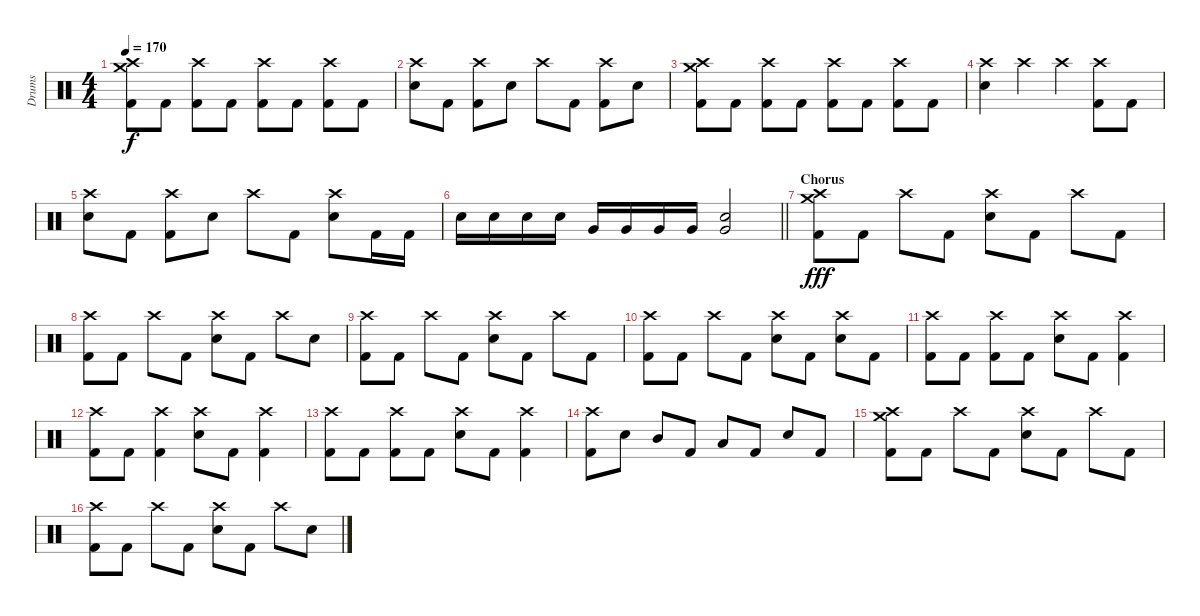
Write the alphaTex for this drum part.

\track ("Drums" "Drums") {instrument percussion}
\staff {score}
\articulation defaults
\ts (4 4)
\tempo 170
\clef neutral
\ks c
("Crash high (hit)" "Crash medium (hit)" "Kick (hit) 2").8{dy f} "Kick (hit) 2".8 ("Crash high (hit)" "Kick (hit) 2").8 "Kick (hit) 2".8 ("Crash high (hit)" "Kick (hit) 2").8 "Kick (hit) 2".8 ("Crash high (hit)" "Kick (hit) 2").8 "Kick (hit) 2".8 |
("Crash high (hit)" "Electric Snare (hit)").8 "Kick (hit) 2".8 ("Crash high (hit)" "Kick (hit) 2").8 "Electric Snare (hit)".8 "Crash high (hit)".8 "Kick (hit) 2".8 ("Crash high (hit)" "Kick (hit) 2").8 "Electric Snare (hit)".8 |
("Crash high (hit)" "Crash medium (hit)" "Kick (hit) 2").8 "Kick (hit) 2".8 ("Crash high (hit)" "Kick (hit) 2").8 "Kick (hit) 2".8 ("Crash high (hit)" "Kick (hit) 2").8 "Kick (hit) 2".8 ("Crash high (hit)" "Kick (hit) 2").8 "Kick (hit) 2".8 |
("Crash high (hit)" "Electric Snare (hit)").4 "Crash high (hit)".4 "Crash high (hit)".4 ("Crash high (hit)" "Kick (hit) 2").8 "Kick (hit) 2".8 |
("Crash high (hit)" "Electric Snare (hit)").8 "Kick (hit) 2".8 ("Crash high (hit)" "Kick (hit) 2").8 "Electric Snare (hit)".8 "Crash high (hit)".8 "Kick (hit) 2".8 ("Crash high (hit)" "Electric Snare (hit)").8 "Kick (hit) 2".16 "Kick (hit) 2".16 |
\barLineRight lightlight "Electric Snare (hit)".16 "Electric Snare (hit)".16 "Electric Snare (hit)".16 "Electric Snare (hit)".16 "Very Low Tom (hit)".16 "Very Low Tom (hit)".16 "Very Low Tom (hit)".16 "Very Low Tom (hit)".16
("Very Low Tom (hit)" "Electric Snare (hit)").2 |
\section ("" "Chorus")
("Crash high (hit)" "Crash medium (hit)" "Kick (hit) 2").8{dy fff} "Kick (hit) 2".8 "Crash high (hit)".8 "Kick (hit) 2".8 ("Crash high (hit)" "Electric Snare (hit)").8 "Kick (hit) 2".8 "Crash high (hit)".8 "Kick (hit) 2".8 |
("Crash high (hit)" "Kick (hit) 2").8 "Kick (hit) 2".8 "Crash high (hit)".8 "Kick (hit) 2".8 ("Crash high (hit)" "Electric Snare (hit)").8 "Kick (hit) 2".8 "Crash high (hit)".8 "Electric Snare (hit)".8 |
("Crash high (hit)" "Kick (hit) 2").8 "Kick (hit) 2".8 "Crash high (hit)".8 "Kick (hit) 2".8 ("Crash high (hit)" "Electric Snare (hit)").8 "Kick (hit) 2".8 "Crash high (hit)".8 "Kick (hit) 2".8 |
("Crash high (hit)" "Kick (hit) 2").8 "Kick (hit) 2".8 "Crash high (hit)".8 "Kick (hit) 2".8 ("Crash high (hit)" "Electric Snare (hit)").8 "Kick (hit) 2".8 ("Crash high (hit)" "Electric Snare (hit)").8 "Kick (hit) 2".8 |
("Crash high (hit)" "Kick (hit) 2").8 "Kick (hit) 2".8 ("Crash high (hit)" "Kick (hit) 2").8 "Kick (hit) 2".8 ("Crash high (hit)" "Electric Snare (hit)").8 "Kick (hit) 2".8 ("Crash high (hit)" "Kick (hit) 2").4 |
("Crash high (hit)" "Kick (hit) 2").8 "Kick (hit) 2".8 ("Crash high (hit)" "Kick (hit) 2").4 ("Crash high (hit)" "Electric Snare (hit)").8 "Kick (hit) 2".8 ("Crash high (hit)" "Kick (hit) 2").4 |
("Crash high (hit)" "Kick (hit) 2").8 "Kick (hit) 2".8 ("Crash high (hit)" "Kick (hit) 2").8 "Kick (hit) 2".8 ("Crash high (hit)" "Electric Snare (hit)").8 "Kick (hit) 2".8 ("Crash high (hit)" "Kick (hit) 2").4 |
("Crash high (hit)" "Kick (hit) 2").8 "Electric Snare (hit)".8 "Mid Tom (hit)".8 "Kick (hit) 2".8 "Low Tom (hit)".8 "Kick (hit) 2".8 "Electric Snare (hit)".8 "Kick (hit) 2".8 |
("Crash high (hit)" "Crash medium (hit)" "Kick (hit) 2").8 "Kick (hit) 2".8 "Crash high (hit)".8 "Kick (hit) 2".8 ("Crash high (hit)" "Electric Snare (hit)").8 "Kick (hit) 2".8 "Crash high (hit)".8 "Kick (hit) 2".8 |
("Crash high (hit)" "Kick (hit) 2").8 "Kick (hit) 2".8 "Crash high (hit)".8 "Kick (hit) 2".8 ("Crash high (hit)" "Electric Snare (hit)").8 "Kick (hit) 2".8 "Crash high (hit)".8 "Electric Snare (hit)".8
